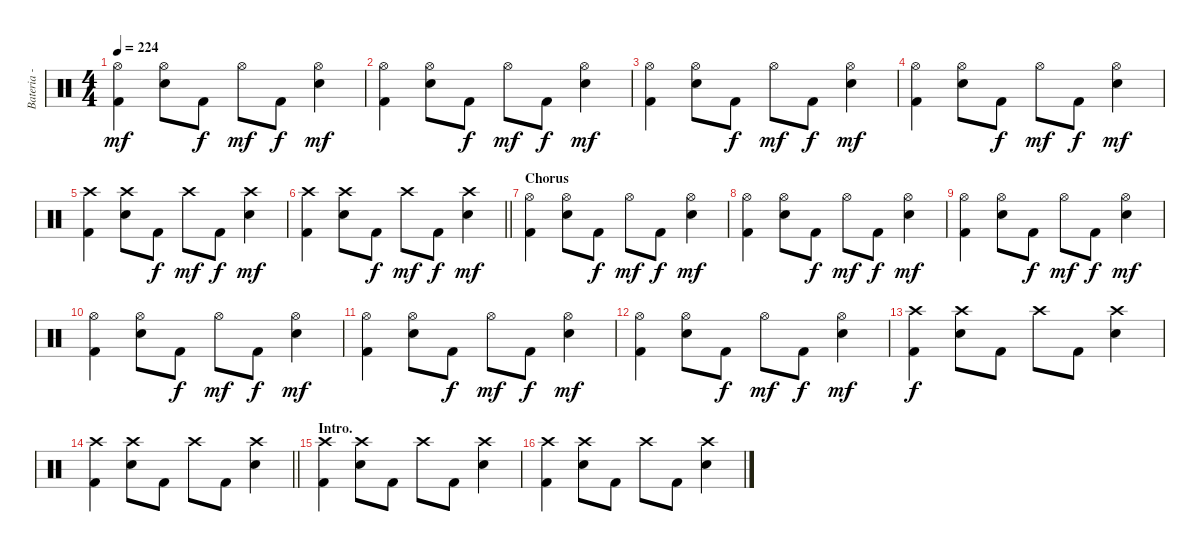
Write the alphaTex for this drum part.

\track ("Bateria - Larzon" "Bateria - ") {instrument percussion}
\staff {score}
\articulation defaults
\ts (4 4)
\tempo 224
\clef neutral
\ks c
("Kick (hit) 2" "Hi-Hat (open)").4{dy mf} ("Electric Snare (hit)" "Hi-Hat (open)").8 "Kick (hit) 2".8{dy f} "Hi-Hat (open)".8{dy mf} "Kick (hit) 2".8{dy f} ("Electric Snare (hit)" "Hi-Hat (open)").4{dy mf} |
("Kick (hit) 2" "Hi-Hat (open)").4 ("Electric Snare (hit)" "Hi-Hat (open)").8 "Kick (hit) 2".8{dy f} "Hi-Hat (open)".8{dy mf} "Kick (hit) 2".8{dy f} ("Electric Snare (hit)" "Hi-Hat (open)").4{dy mf} |
("Kick (hit) 2" "Hi-Hat (open)").4 ("Electric Snare (hit)" "Hi-Hat (open)").8 "Kick (hit) 2".8{dy f} "Hi-Hat (open)".8{dy mf} "Kick (hit) 2".8{dy f} ("Electric Snare (hit)" "Hi-Hat (open)").4{dy mf} |
("Kick (hit) 2" "Hi-Hat (open)").4 ("Electric Snare (hit)" "Hi-Hat (open)").8 "Kick (hit) 2".8{dy f} "Hi-Hat (open)".8{dy mf} "Kick (hit) 2".8{dy f} ("Electric Snare (hit)" "Hi-Hat (open)").4{dy mf} |
("Kick (hit) 2" "Crash high (hit)").4 ("Electric Snare (hit)" "Crash high (hit)").8 "Kick (hit) 2".8{dy f} "Crash high (hit)".8{dy mf} "Kick (hit) 2".8{dy f} ("Electric Snare (hit)" "Crash high (hit)").4{dy mf} |
\barLineRight lightlight
("Kick (hit) 2" "Crash high (hit)").4 ("Electric Snare (hit)" "Crash high (hit)").8 "Kick (hit) 2".8{dy f} "Crash high (hit)".8{dy mf} "Kick (hit) 2".8{dy f} ("Electric Snare (hit)" "Crash high (hit)").4{dy mf} |
\section ("" "Chorus")
("Kick (hit) 2" "Hi-Hat (open)").4 ("Electric Snare (hit)" "Hi-Hat (open)").8 "Kick (hit) 2".8{dy f} "Hi-Hat (open)".8{dy mf} "Kick (hit) 2".8{dy f} ("Electric Snare (hit)" "Hi-Hat (open)").4{dy mf} |
("Kick (hit) 2" "Hi-Hat (open)").4 ("Electric Snare (hit)" "Hi-Hat (open)").8 "Kick (hit) 2".8{dy f} "Hi-Hat (open)".8{dy mf} "Kick (hit) 2".8{dy f} ("Electric Snare (hit)" "Hi-Hat (open)").4{dy mf} |
("Kick (hit) 2" "Hi-Hat (open)").4 ("Electric Snare (hit)" "Hi-Hat (open)").8 "Kick (hit) 2".8{dy f} "Hi-Hat (open)".8{dy mf} "Kick (hit) 2".8{dy f} ("Electric Snare (hit)" "Hi-Hat (open)").4{dy mf} |
("Kick (hit) 2" "Hi-Hat (open)").4 ("Electric Snare (hit)" "Hi-Hat (open)").8 "Kick (hit) 2".8{dy f} "Hi-Hat (open)".8{dy mf} "Kick (hit) 2".8{dy f} ("Electric Snare (hit)" "Hi-Hat (open)").4{dy mf} |
("Kick (hit) 2" "Hi-Hat (open)").4 ("Electric Snare (hit)" "Hi-Hat (open)").8 "Kick (hit) 2".8{dy f} "Hi-Hat (open)".8{dy mf} "Kick (hit) 2".8{dy f} ("Electric Snare (hit)" "Hi-Hat (open)").4{dy mf} |
("Kick (hit) 2" "Hi-Hat (open)").4 ("Electric Snare (hit)" "Hi-Hat (open)").8 "Kick (hit) 2".8{dy f} "Hi-Hat (open)".8{dy mf} "Kick (hit) 2".8{dy f} ("Electric Snare (hit)" "Hi-Hat (open)").4{dy mf} |
("Kick (hit) 2" "Crash high (hit)").4{dy f} ("Electric Snare (hit)" "Crash high (hit)").8 "Kick (hit) 2".8 "Crash high (hit)".8 "Kick (hit) 2".8 ("Electric Snare (hit)" "Crash high (hit)").4 |
\barLineRight lightlight
("Kick (hit) 2" "Crash high (hit)").4 ("Electric Snare (hit)" "Crash high (hit)").8 "Kick (hit) 2".8 "Crash high (hit)".8 "Kick (hit) 2".8 ("Electric Snare (hit)" "Crash high (hit)").4 |
\section ("" "Intro.")
("Kick (hit) 2" "Crash high (hit)").4 ("Electric Snare (hit)" "Crash high (hit)").8 "Kick (hit) 2".8 "Crash high (hit)".8 "Kick (hit) 2".8 ("Electric Snare (hit)" "Crash high (hit)").4 |
("Kick (hit) 2" "Crash high (hit)").4 ("Electric Snare (hit)" "Crash high (hit)").8 "Kick (hit) 2".8 "Crash high (hit)".8 "Kick (hit) 2".8 ("Electric Snare (hit)" "Crash high (hit)").4
